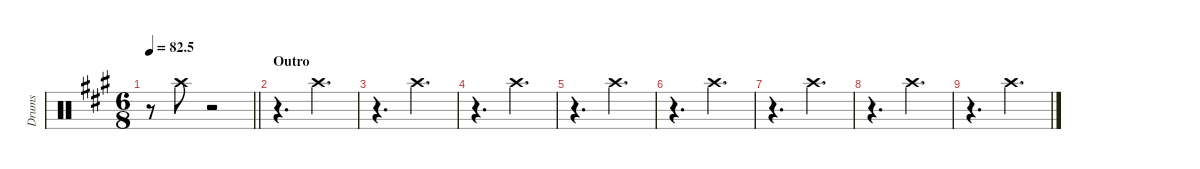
\defaultSystemsLayout 4
\hideDynamics
\bracketExtendMode nobrackets
\otherSystemsTrackNameOrientation horizontal
\track ("Left crash" "Drums") {instrument percussion}
\staff {score}
\articulation defaults
\ts (6 8)
\tempo
82.5
\accidentals auto
\clef neutral
\ottava regular
\simile none
\scale
0.333333
\barLineRight lightlight
\ks a
r.8{dy f} "Crash high (hit)"{acc forcenatural}.8 r.2 |
\section ("" "Outro")
\scale
0.333333 r.4{d} "Crash high (hit)"{acc forcenatural}.4{d} |
\scale
0.333333 r.4{d} "Crash high (hit)"{acc forcenatural}.4{d} |
\scale
0.333333 r.4{d} "Crash high (hit)"{acc forcenatural}.4{d} |
\scale
0.333333 r.4{d} "Crash high (hit)"{acc forcenatural}.4{d} |
\scale
0.333333 r.4{d} "Crash high (hit)"{acc forcenatural}.4{d} |
\scale
0.333333 r.4{d} "Crash high (hit)"{acc forcenatural}.4{d} |
\scale
0.333333 r.4{d} "Crash high (hit)"{acc forcenatural}.4{d} |
\scale
0.333333 r.4{d} "Crash high (hit)"{acc forcenatural}.4{d} |
\scale
0.333333 |
\scale
0.333333 |
\scale
0.333333
